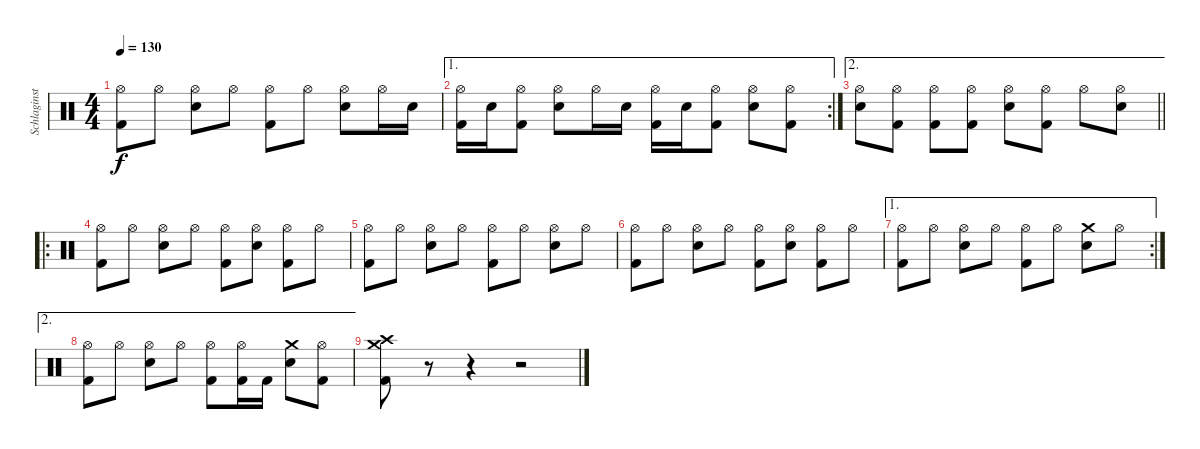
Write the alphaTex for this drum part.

\track ("Schlaginstrumente - Auswahl" "Schlaginst") {instrument percussion}
\staff {score}
\articulation defaults
\ts (4 4)
\tempo 130
\clef neutral
\ks c
("Hi-Hat (open)" "Kick (hit) 2").8{dy f} "Hi-Hat (open)".8 ("Hi-Hat (open)" "Snare (hit) 2").8 "Hi-Hat (open)".8 ("Hi-Hat (open)" "Kick (hit) 2").8 "Hi-Hat (open)".8 ("Hi-Hat (open)" "Snare (hit) 2").8 "Hi-Hat (open)".16 "Snare (hit) 2".16 |
\ae 1
\rc 2
("Hi-Hat (open)" "Kick (hit) 2").16 "Snare (hit) 2".16 ("Hi-Hat (open)" "Kick (hit) 2").8 ("Hi-Hat (open)" "Snare (hit) 2").8 "Hi-Hat (open)".16 "Snare (hit) 2".16 ("Hi-Hat (open)" "Kick (hit) 2").16 "Snare (hit) 2".16 ("Hi-Hat (open)" "Kick (hit) 2").8 ("Hi-Hat (open)" "Snare (hit) 2").8 ("Hi-Hat (open)" "Kick (hit) 2").8 |
\ae 2
\barLineRight lightlight
("Hi-Hat (open)" "Snare (hit) 2").8 ("Hi-Hat (open)" "Kick (hit) 2").8 ("Hi-Hat (open)" "Kick (hit) 2").8 ("Hi-Hat (open)" "Kick (hit) 2").8 ("Hi-Hat (open)" "Snare (hit) 2").8 ("Hi-Hat (open)" "Kick (hit) 2").8 "Hi-Hat (open)".8 ("Hi-Hat (open)" "Snare (hit) 2").8 |
\ro
("Hi-Hat (open)" "Kick (hit) 2").8 "Hi-Hat (open)".8 ("Hi-Hat (open)" "Snare (hit) 2").8 "Hi-Hat (open)".8 ("Hi-Hat (open)" "Kick (hit) 2").8 ("Hi-Hat (open)" "Snare (hit) 2").8 ("Hi-Hat (open)" "Kick (hit) 2").8 "Hi-Hat (open)".8 |
("Hi-Hat (open)" "Kick (hit) 2").8 "Hi-Hat (open)".8 ("Hi-Hat (open)" "Snare (hit) 2").8 "Hi-Hat (open)".8 ("Hi-Hat (open)" "Kick (hit) 2").8 "Hi-Hat (open)".8 ("Hi-Hat (open)" "Snare (hit) 2").8 "Hi-Hat (open)".8 |
("Hi-Hat (open)" "Kick (hit) 2").8 "Hi-Hat (open)".8 ("Hi-Hat (open)" "Snare (hit) 2").8 "Hi-Hat (open)".8 ("Hi-Hat (open)" "Kick (hit) 2").8 ("Hi-Hat (open)" "Snare (hit) 2").8 ("Hi-Hat (open)" "Kick (hit) 2").8 "Hi-Hat (open)".8 |
\ae 1
\rc 2
("Hi-Hat (open)" "Kick (hit) 2").8 "Hi-Hat (open)".8 ("Hi-Hat (open)" "Snare (hit) 2").8 "Hi-Hat (open)".8 ("Hi-Hat (open)" "Kick (hit) 2").8 "Hi-Hat (open)".8 ("Crash medium (hit)" "Snare (hit) 2").8 "Hi-Hat (open)".8 |
\ae 2
("Hi-Hat (open)" "Kick (hit) 2").8 "Hi-Hat (open)".8 ("Hi-Hat (open)" "Snare (hit) 2").8 "Hi-Hat (open)".8 ("Hi-Hat (open)" "Kick (hit) 2").8 ("Hi-Hat (open)" "Kick (hit) 2").16 "Kick (hit) 2".16 ("Crash medium (hit)" "Snare (hit) 2").8 ("Hi-Hat (open)" "Kick (hit) 2").8 |
("Crash high (hit)" "Crash medium (hit)" "Kick (hit) 2").8 r.8 r.4 r.2
